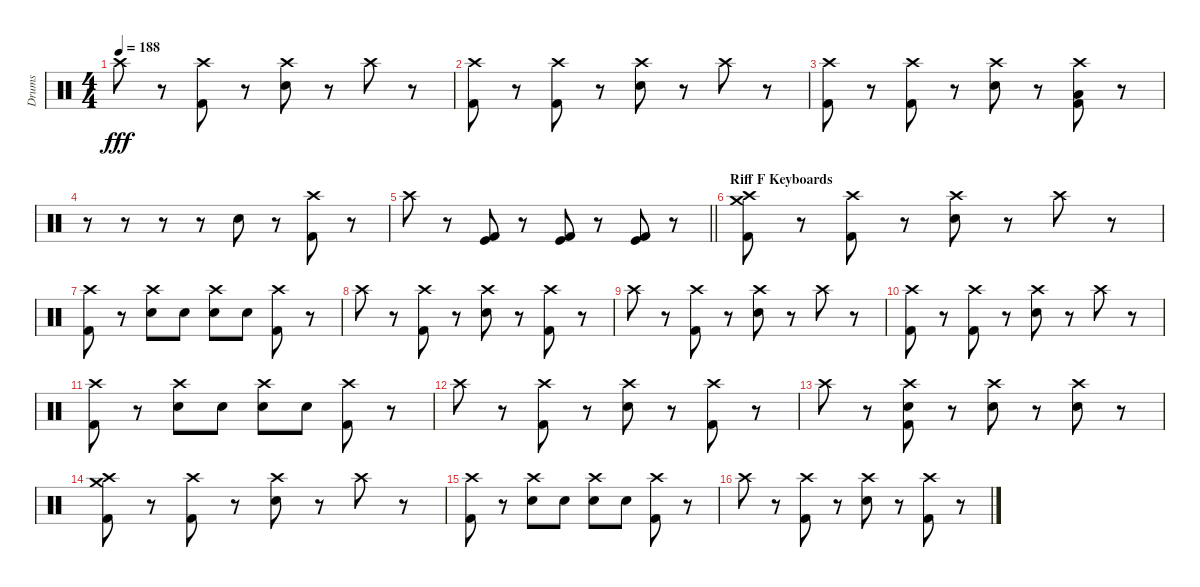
\track ("Drums" "Drums") {instrument percussion}
\staff {score}
\articulation defaults
\ts (4 4)
\tempo 188
\clef neutral
\ks c "Crash high (hit)".8{dy fff}
r.8 ("Crash high (hit)" "Kick (hit) 2").8 r.8 ("Crash high (hit)" "Electric Snare (hit)").8 r.8 "Crash high (hit)".8 r.8 |
("Crash high (hit)" "Kick (hit) 2").8 r.8 ("Crash high (hit)" "Kick (hit) 2").8 r.8 ("Crash high (hit)" "Electric Snare (hit)").8 r.8 "Crash high (hit)".8 r.8 |
("Crash high (hit)" "Kick (hit) 2").8 r.8 ("Crash high (hit)" "Kick (hit) 2").8 r.8 ("Crash high (hit)" "Electric Snare (hit)").8 r.8 ("Crash high (hit)" "Low Tom (hit)" "Kick (hit) 2").8 r.8 |
r.8 r.8 r.8 r.8 "Electric Snare (hit)".8 r.8 ("Crash high (hit)" "Kick (hit) 2").8 r.8 |
\barLineRight lightlight "Crash high (hit)".8
r.8 ("Kick (hit)" "Kick (hit) 2").8 r.8 ("Kick (hit)" "Kick (hit) 2").8 r.8 ("Kick (hit)" "Kick (hit) 2").8 r.8 |
\section ("" "Riff F Keyboards")
("Crash medium (hit)" "Crash high (hit)" "Kick (hit) 2").8 r.8 ("Crash high (hit)" "Kick (hit) 2").8 r.8 ("Crash high (hit)" "Electric Snare (hit)").8 r.8 "Crash high (hit)".8 r.8 |
("Crash high (hit)" "Kick (hit) 2").8 r.8 ("Crash high (hit)" "Electric Snare (hit)").8 "Electric Snare (hit)".8 ("Crash high (hit)" "Electric Snare (hit)").8 "Electric Snare (hit)".8 ("Crash high (hit)" "Kick (hit) 2").8 r.8 |
"Crash high (hit)".8 r.8 ("Crash high (hit)" "Kick (hit) 2").8 r.8 ("Crash high (hit)" "Electric Snare (hit)").8 r.8 ("Crash high (hit)" "Kick (hit) 2").8 r.8 |
"Crash high (hit)".8 r.8 ("Crash high (hit)" "Kick (hit) 2").8 r.8 ("Crash high (hit)" "Electric Snare (hit)").8 r.8 "Crash high (hit)".8 r.8 |
("Crash high (hit)" "Kick (hit) 2").8 r.8 ("Crash high (hit)" "Kick (hit) 2").8 r.8 ("Crash high (hit)" "Electric Snare (hit)").8 r.8 "Crash high (hit)".8 r.8 |
("Crash high (hit)" "Kick (hit) 2").8 r.8 ("Crash high (hit)" "Electric Snare (hit)").8 "Electric Snare (hit)".8 ("Crash high (hit)" "Electric Snare (hit)").8 "Electric Snare (hit)".8 ("Crash high (hit)" "Kick (hit) 2").8 r.8 |
"Crash high (hit)".8 r.8 ("Crash high (hit)" "Kick (hit) 2").8 r.8 ("Crash high (hit)" "Electric Snare (hit)").8 r.8 ("Crash high (hit)" "Kick (hit) 2").8 r.8 |
"Crash high (hit)".8 r.8 ("Crash high (hit)" "Electric Snare (hit)" "Kick (hit) 2").8 r.8 ("Crash high (hit)" "Electric Snare (hit)").8 r.8 ("Crash high (hit)" "Electric Snare (hit)").8 r.8 |
("Crash medium (hit)" "Crash high (hit)" "Kick (hit) 2").8 r.8 ("Crash high (hit)" "Kick (hit) 2").8 r.8 ("Crash high (hit)" "Electric Snare (hit)").8 r.8 "Crash high (hit)".8 r.8 |
("Crash high (hit)" "Kick (hit) 2").8 r.8 ("Crash high (hit)" "Electric Snare (hit)").8 "Electric Snare (hit)".8 ("Crash high (hit)" "Electric Snare (hit)").8 "Electric Snare (hit)".8 ("Crash high (hit)" "Kick (hit) 2").8 r.8 |
"Crash high (hit)".8 r.8 ("Crash high (hit)" "Kick (hit) 2").8 r.8 ("Crash high (hit)" "Electric Snare (hit)").8 r.8 ("Crash high (hit)" "Kick (hit) 2").8 r.8
